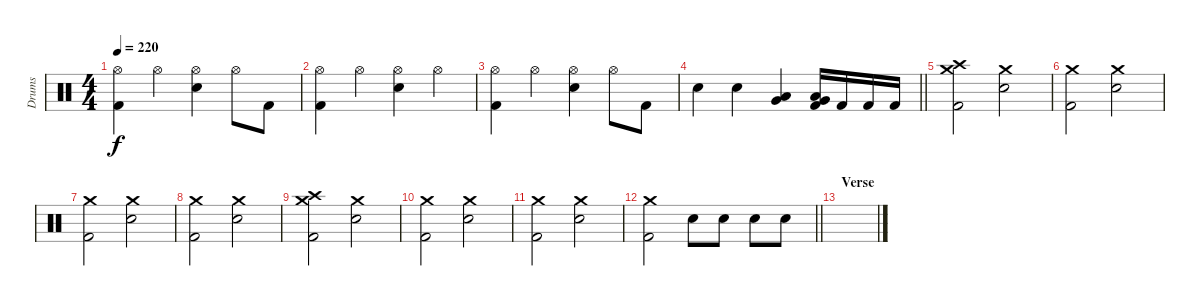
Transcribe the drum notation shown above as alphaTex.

\track ("Drums" "Drums") {instrument percussion}
\staff {score}
\articulation defaults
\ts (4 4)
\tempo 220
\clef neutral
\ks c
("Hi-Hat (open)" "Kick (hit) 2").4{dy f} "Hi-Hat (open)".4 ("Hi-Hat (open)" "Electric Snare (hit)").4 "Hi-Hat (open)".8 "Kick (hit) 2".8 |
("Hi-Hat (open)" "Kick (hit) 2").4 "Hi-Hat (open)".4 ("Hi-Hat (open)" "Electric Snare (hit)").4 "Hi-Hat (open)".4 |
("Hi-Hat (open)" "Kick (hit) 2").4 "Hi-Hat (open)".4 ("Hi-Hat (open)" "Electric Snare (hit)").4 "Hi-Hat (open)".8 "Kick (hit) 2".8 |
\barLineRight lightlight "Electric Snare (hit)".4 "Electric Snare (hit)".4
("Low Tom (hit)" "Very Low Tom (hit)").4 ("Low Tom (hit)" "Very Low Tom (hit)" "Kick (hit) 2").16 "Kick (hit) 2".16 "Kick (hit) 2".16 "Kick (hit) 2".16 |
\section ("" "")
("Crash medium (hit)" "Crash high (hit)" "Kick (hit) 2").2 ("Crash medium (hit)" "Electric Snare (hit)").2 |
("Crash medium (hit)" "Kick (hit) 2").2 ("Crash medium (hit)" "Electric Snare (hit)").2 |
("Crash medium (hit)" "Kick (hit) 2").2 ("Crash medium (hit)" "Electric Snare (hit)").2 |
("Crash medium (hit)" "Kick (hit) 2").2 ("Crash medium (hit)" "Electric Snare (hit)").2 |
("Crash medium (hit)" "Crash high (hit)" "Kick (hit) 2").2 ("Crash medium (hit)" "Electric Snare (hit)").2 |
("Crash medium (hit)" "Kick (hit) 2").2 ("Crash medium (hit)" "Electric Snare (hit)").2 |
("Crash medium (hit)" "Kick (hit) 2").2 ("Crash medium (hit)" "Electric Snare (hit)").2 |
\barLineRight lightlight
("Crash medium (hit)" "Kick (hit) 2").2 "Electric Snare (hit)".8 "Electric Snare (hit)".8 "Electric Snare (hit)".8 "Electric Snare (hit)".8 |
\section ("" "Verse")
